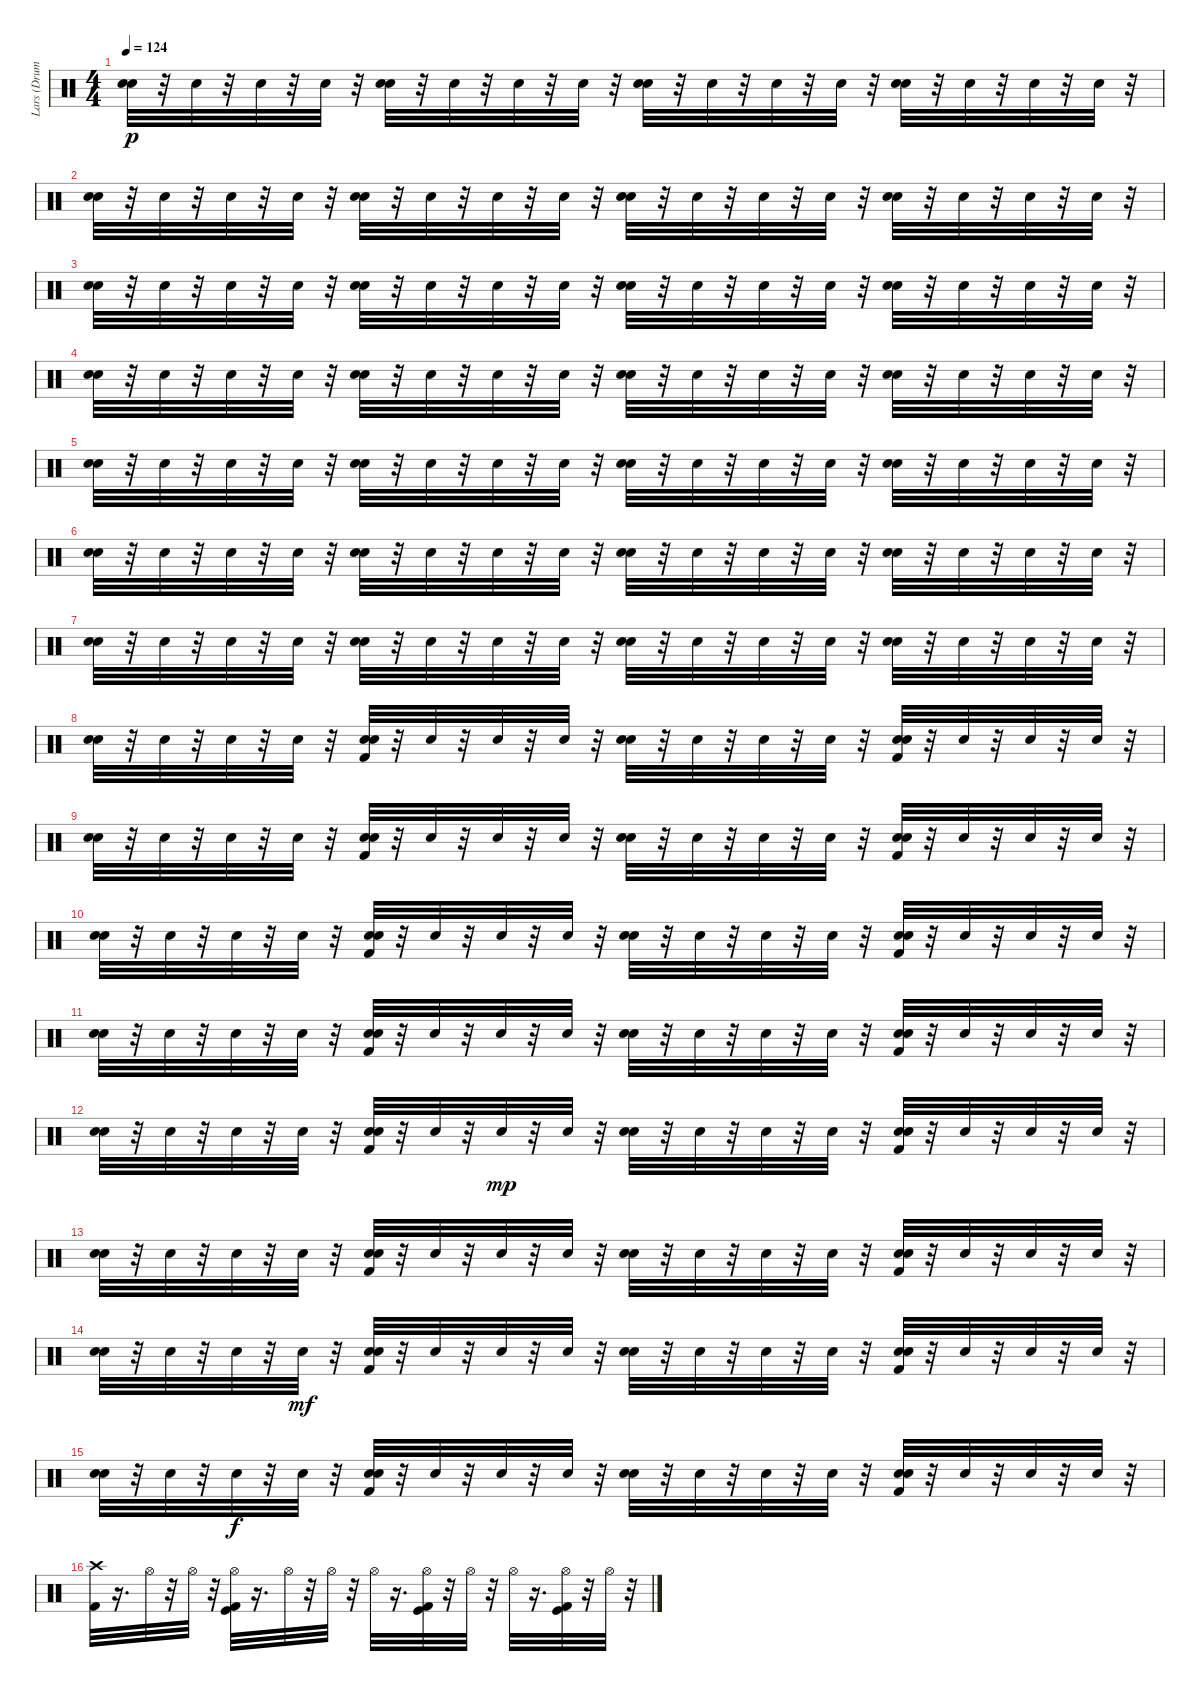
\track ("Lars (Drums)" "Lars (Drum") {instrument percussion}
\staff {score}
\articulation defaults
\ts (4 4)
\tempo 124
\clef neutral
\ks c
("Electric Snare (hit)" "Snare (hit) 2").32{dy p} r.32 "Snare (hit) 2".32 r.32 "Snare (hit) 2".32 r.32 "Snare (hit) 2".32 r.32 ("Snare (hit) 2" "Electric Snare (hit)").32 r.32 "Snare (hit) 2".32 r.32 "Snare (hit) 2".32 r.32 "Snare (hit) 2".32 r.32 ("Electric Snare (hit)" "Snare (hit) 2").32 r.32 "Snare (hit) 2".32 r.32 "Snare (hit) 2".32 r.32 "Snare (hit) 2".32 r.32 ("Snare (hit) 2" "Electric Snare (hit)").32 r.32 "Snare (hit) 2".32 r.32 "Snare (hit) 2".32 r.32 "Snare (hit) 2".32 r.32 |
("Electric Snare (hit)" "Snare (hit) 2").32 r.32 "Snare (hit) 2".32 r.32 "Snare (hit) 2".32 r.32 "Snare (hit) 2".32 r.32 ("Snare (hit) 2" "Electric Snare (hit)").32 r.32 "Snare (hit) 2".32 r.32 "Snare (hit) 2".32 r.32 "Snare (hit) 2".32 r.32 ("Electric Snare (hit)" "Snare (hit) 2").32 r.32 "Snare (hit) 2".32 r.32 "Snare (hit) 2".32 r.32 "Snare (hit) 2".32 r.32 ("Snare (hit) 2" "Electric Snare (hit)").32 r.32 "Snare (hit) 2".32 r.32 "Snare (hit) 2".32 r.32 "Snare (hit) 2".32 r.32 |
("Electric Snare (hit)" "Snare (hit) 2").32 r.32 "Snare (hit) 2".32 r.32 "Snare (hit) 2".32 r.32 "Snare (hit) 2".32 r.32 ("Snare (hit) 2" "Electric Snare (hit)").32 r.32 "Snare (hit) 2".32 r.32 "Snare (hit) 2".32 r.32 "Snare (hit) 2".32 r.32 ("Electric Snare (hit)" "Snare (hit) 2").32 r.32 "Snare (hit) 2".32 r.32 "Snare (hit) 2".32 r.32 "Snare (hit) 2".32 r.32 ("Snare (hit) 2" "Electric Snare (hit)").32 r.32 "Snare (hit) 2".32 r.32 "Snare (hit) 2".32 r.32 "Snare (hit) 2".32 r.32 |
("Electric Snare (hit)" "Snare (hit) 2").32 r.32 "Snare (hit) 2".32 r.32 "Snare (hit) 2".32 r.32 "Snare (hit) 2".32 r.32 ("Snare (hit) 2" "Electric Snare (hit)").32 r.32 "Snare (hit) 2".32 r.32 "Snare (hit) 2".32 r.32 "Snare (hit) 2".32 r.32 ("Electric Snare (hit)" "Snare (hit) 2").32 r.32 "Snare (hit) 2".32 r.32 "Snare (hit) 2".32 r.32 "Snare (hit) 2".32 r.32 ("Snare (hit) 2" "Electric Snare (hit)").32 r.32 "Snare (hit) 2".32 r.32 "Snare (hit) 2".32 r.32 "Snare (hit) 2".32 r.32 |
("Electric Snare (hit)" "Snare (hit) 2").32 r.32 "Snare (hit) 2".32 r.32 "Snare (hit) 2".32 r.32 "Snare (hit) 2".32 r.32 ("Snare (hit) 2" "Electric Snare (hit)").32 r.32 "Snare (hit) 2".32 r.32 "Snare (hit) 2".32 r.32 "Snare (hit) 2".32 r.32 ("Electric Snare (hit)" "Snare (hit) 2").32 r.32 "Snare (hit) 2".32 r.32 "Snare (hit) 2".32 r.32 "Snare (hit) 2".32 r.32 ("Snare (hit) 2" "Electric Snare (hit)").32 r.32 "Snare (hit) 2".32 r.32 "Snare (hit) 2".32 r.32 "Snare (hit) 2".32 r.32 |
("Electric Snare (hit)" "Snare (hit) 2").32 r.32 "Snare (hit) 2".32 r.32 "Snare (hit) 2".32 r.32 "Snare (hit) 2".32 r.32 ("Snare (hit) 2" "Electric Snare (hit)").32 r.32 "Snare (hit) 2".32 r.32 "Snare (hit) 2".32 r.32 "Snare (hit) 2".32 r.32 ("Electric Snare (hit)" "Snare (hit) 2").32 r.32 "Snare (hit) 2".32 r.32 "Snare (hit) 2".32 r.32 "Snare (hit) 2".32 r.32 ("Snare (hit) 2" "Electric Snare (hit)").32 r.32 "Snare (hit) 2".32 r.32 "Snare (hit) 2".32 r.32 "Snare (hit) 2".32 r.32 |
("Electric Snare (hit)" "Snare (hit) 2").32 r.32 "Snare (hit) 2".32 r.32 "Snare (hit) 2".32 r.32 "Snare (hit) 2".32 r.32 ("Snare (hit) 2" "Electric Snare (hit)").32 r.32 "Snare (hit) 2".32 r.32 "Snare (hit) 2".32 r.32 "Snare (hit) 2".32 r.32 ("Electric Snare (hit)" "Snare (hit) 2").32 r.32 "Snare (hit) 2".32 r.32 "Snare (hit) 2".32 r.32 "Snare (hit) 2".32 r.32 ("Snare (hit) 2" "Electric Snare (hit)").32 r.32 "Snare (hit) 2".32 r.32 "Snare (hit) 2".32 r.32 "Snare (hit) 2".32 r.32 |
("Electric Snare (hit)" "Snare (hit) 2").32 r.32 "Snare (hit) 2".32 r.32 "Snare (hit) 2".32 r.32 "Snare (hit) 2".32 r.32 ("Kick (hit) 2" "Snare (hit) 2" "Electric Snare (hit)").32 r.32 "Snare (hit) 2".32 r.32 "Snare (hit) 2".32 r.32 "Snare (hit) 2".32 r.32 ("Electric Snare (hit)" "Snare (hit) 2").32 r.32 "Snare (hit) 2".32 r.32 "Snare (hit) 2".32 r.32 "Snare (hit) 2".32 r.32 ("Kick (hit) 2" "Snare (hit) 2" "Electric Snare (hit)").32 r.32 "Snare (hit) 2".32 r.32 "Snare (hit) 2".32 r.32 "Snare (hit) 2".32 r.32 |
("Electric Snare (hit)" "Snare (hit) 2").32 r.32 "Snare (hit) 2".32 r.32 "Snare (hit) 2".32 r.32 "Snare (hit) 2".32 r.32 ("Kick (hit) 2" "Snare (hit) 2" "Electric Snare (hit)").32 r.32 "Snare (hit) 2".32 r.32 "Snare (hit) 2".32 r.32 "Snare (hit) 2".32 r.32 ("Electric Snare (hit)" "Snare (hit) 2").32 r.32 "Snare (hit) 2".32 r.32 "Snare (hit) 2".32 r.32 "Snare (hit) 2".32 r.32 ("Snare (hit) 2" "Electric Snare (hit)" "Kick (hit) 2").32 r.32 "Snare (hit) 2".32 r.32 "Snare (hit) 2".32 r.32 "Snare (hit) 2".32 r.32 |
("Electric Snare (hit)" "Snare (hit) 2").32 r.32 "Snare (hit) 2".32 r.32 "Snare (hit) 2".32 r.32 "Snare (hit) 2".32 r.32 ("Kick (hit) 2" "Snare (hit) 2" "Electric Snare (hit)").32 r.32 "Snare (hit) 2".32 r.32 "Snare (hit) 2".32 r.32 "Snare (hit) 2".32 r.32 ("Electric Snare (hit)" "Snare (hit) 2").32 r.32 "Snare (hit) 2".32 r.32 "Snare (hit) 2".32 r.32 "Snare (hit) 2".32 r.32 ("Kick (hit) 2" "Snare (hit) 2" "Electric Snare (hit)").32 r.32 "Snare (hit) 2".32 r.32 "Snare (hit) 2".32 r.32 "Snare (hit) 2".32 r.32 |
("Electric Snare (hit)" "Snare (hit) 2").32 r.32 "Snare (hit) 2".32 r.32 "Snare (hit) 2".32 r.32 "Snare (hit) 2".32 r.32 ("Kick (hit) 2" "Snare (hit) 2" "Electric Snare (hit)").32 r.32 "Snare (hit) 2".32 r.32 "Snare (hit) 2".32 r.32 "Snare (hit) 2".32 r.32 ("Electric Snare (hit)" "Snare (hit) 2").32 r.32 "Snare (hit) 2".32 r.32 "Snare (hit) 2".32 r.32 "Snare (hit) 2".32 r.32 ("Kick (hit) 2" "Snare (hit) 2" "Electric Snare (hit)").32 r.32 "Snare (hit) 2".32 r.32 "Snare (hit) 2".32 r.32 "Snare (hit) 2".32 r.32 |
("Electric Snare (hit)" "Snare (hit) 2").32 r.32 "Snare (hit) 2".32 r.32 "Snare (hit) 2".32 r.32 "Snare (hit) 2".32 r.32 ("Kick (hit) 2" "Snare (hit) 2" "Electric Snare (hit)").32 r.32 "Snare (hit) 2".32 r.32 "Snare (hit) 2".32{dy mp} r.32 "Snare (hit) 2".32 r.32 ("Electric Snare (hit)" "Snare (hit) 2").32 r.32 "Snare (hit) 2".32 r.32 "Snare (hit) 2".32 r.32 "Snare (hit) 2".32 r.32 ("Kick (hit) 2" "Snare (hit) 2" "Electric Snare (hit)").32 r.32 "Snare (hit) 2".32 r.32 "Snare (hit) 2".32 r.32 "Snare (hit) 2".32 r.32 |
("Electric Snare (hit)" "Snare (hit) 2").32 r.32 "Snare (hit) 2".32 r.32 "Snare (hit) 2".32 r.32 "Snare (hit) 2".32 r.32 ("Kick (hit) 2" "Snare (hit) 2" "Electric Snare (hit)").32 r.32 "Snare (hit) 2".32 r.32 "Snare (hit) 2".32 r.32 "Snare (hit) 2".32 r.32 ("Electric Snare (hit)" "Snare (hit) 2").32 r.32 "Snare (hit) 2".32 r.32 "Snare (hit) 2".32 r.32 "Snare (hit) 2".32 r.32 ("Kick (hit) 2" "Snare (hit) 2" "Electric Snare (hit)").32 r.32 "Snare (hit) 2".32 r.32 "Snare (hit) 2".32 r.32 "Snare (hit) 2".32 r.32 |
("Electric Snare (hit)" "Snare (hit) 2").32 r.32 "Snare (hit) 2".32 r.32 "Snare (hit) 2".32 r.32 "Snare (hit) 2".32{dy mf} r.32 ("Kick (hit) 2" "Snare (hit) 2" "Electric Snare (hit)").32 r.32 "Snare (hit) 2".32 r.32 "Snare (hit) 2".32 r.32 "Snare (hit) 2".32 r.32 ("Electric Snare (hit)" "Snare (hit) 2").32 r.32 "Snare (hit) 2".32 r.32 "Snare (hit) 2".32 r.32 "Snare (hit) 2".32 r.32 ("Kick (hit) 2" "Snare (hit) 2" "Electric Snare (hit)").32 r.32 "Snare (hit) 2".32 r.32 "Snare (hit) 2".32 r.32 "Snare (hit) 2".32 r.32 |
("Electric Snare (hit)" "Snare (hit) 2").32 r.32 "Snare (hit) 2".32 r.32 "Snare (hit) 2".32{dy f} r.32 "Snare (hit) 2".32 r.32 ("Kick (hit) 2" "Snare (hit) 2" "Electric Snare (hit)").32 r.32 "Snare (hit) 2".32 r.32 "Snare (hit) 2".32 r.32 "Snare (hit) 2".32 r.32 ("Electric Snare (hit)" "Snare (hit) 2").32 r.32 "Snare (hit) 2".32 r.32 "Snare (hit) 2".32 r.32 "Snare (hit) 2".32 r.32 ("Kick (hit) 2" "Snare (hit) 2" "Electric Snare (hit)").32 r.32 "Snare (hit) 2".32 r.32 "Snare (hit) 2".32 r.32 "Snare (hit) 2".32 r.32 |
("Kick (hit) 2" "Crash high (hit)").32 r.16{d} "Hi-Hat (open)".32 r.32 "Hi-Hat (open)".32 r.32 ("Hi-Hat (open)" "Kick (hit) 2" "Kick (hit)").32 r.16{d} "Hi-Hat (open)".32 r.32 "Hi-Hat (open)".32 r.32 "Hi-Hat (open)".32 r.16{d} ("Hi-Hat (open)" "Kick (hit) 2" "Kick (hit)").32 r.32 "Hi-Hat (open)".32 r.32 "Hi-Hat (open)".32 r.16{d} ("Hi-Hat (open)" "Kick (hit)" "Kick (hit) 2").32 r.32 "Hi-Hat (open)".32 r.32
